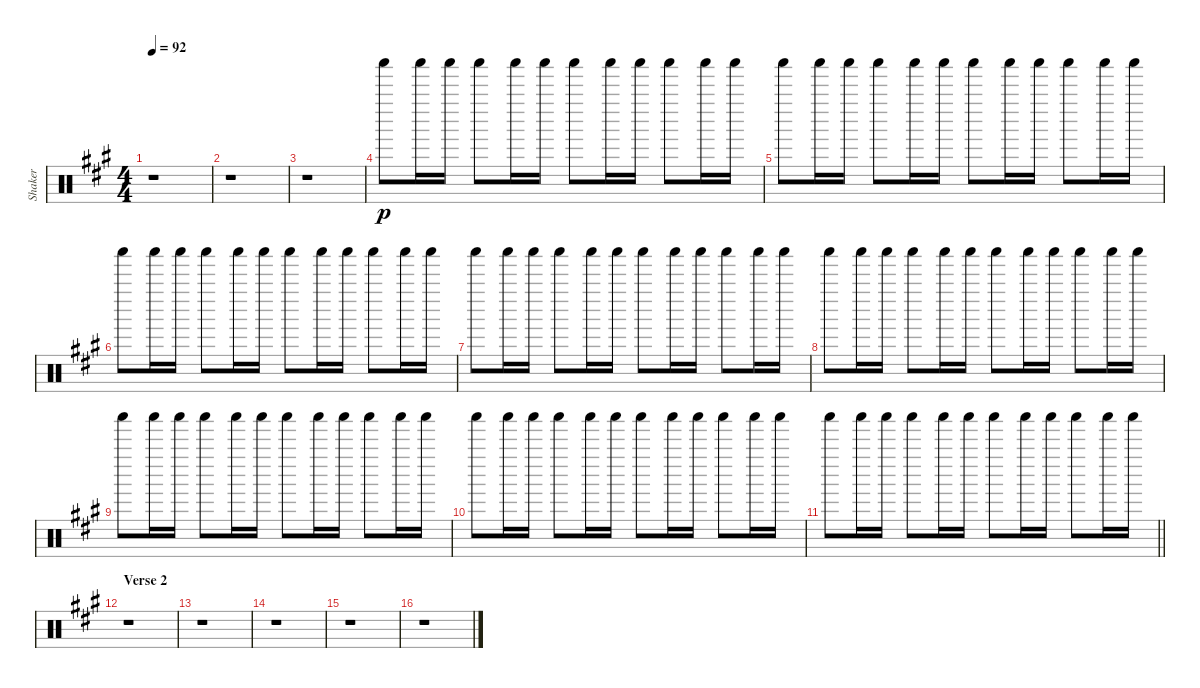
\track ("Shaker" "Shaker") {instrument percussion}
\staff {score}
\articulation defaults
\ts (4 4)
\tempo 92
\clef neutral
\ks f#minor
r.1{dy p} |
r.1 |
r.1 |
"Shaker (hit)".8 "Shaker (hit)".16 "Shaker (hit)".16 "Shaker (hit)".8 "Shaker (hit)".16 "Shaker (hit)".16 "Shaker (hit)".8 "Shaker (hit)".16 "Shaker (hit)".16 "Shaker (hit)".8 "Shaker (hit)".16 "Shaker (hit)".16 |
"Shaker (hit)".8 "Shaker (hit)".16 "Shaker (hit)".16 "Shaker (hit)".8 "Shaker (hit)".16 "Shaker (hit)".16 "Shaker (hit)".8 "Shaker (hit)".16 "Shaker (hit)".16 "Shaker (hit)".8 "Shaker (hit)".16 "Shaker (hit)".16 |
"Shaker (hit)".8 "Shaker (hit)".16 "Shaker (hit)".16 "Shaker (hit)".8 "Shaker (hit)".16 "Shaker (hit)".16 "Shaker (hit)".8 "Shaker (hit)".16 "Shaker (hit)".16 "Shaker (hit)".8 "Shaker (hit)".16 "Shaker (hit)".16 |
"Shaker (hit)".8 "Shaker (hit)".16 "Shaker (hit)".16 "Shaker (hit)".8 "Shaker (hit)".16 "Shaker (hit)".16 "Shaker (hit)".8 "Shaker (hit)".16 "Shaker (hit)".16 "Shaker (hit)".8 "Shaker (hit)".16 "Shaker (hit)".16 |
"Shaker (hit)".8 "Shaker (hit)".16 "Shaker (hit)".16 "Shaker (hit)".8 "Shaker (hit)".16 "Shaker (hit)".16 "Shaker (hit)".8 "Shaker (hit)".16 "Shaker (hit)".16 "Shaker (hit)".8 "Shaker (hit)".16 "Shaker (hit)".16 |
"Shaker (hit)".8 "Shaker (hit)".16 "Shaker (hit)".16 "Shaker (hit)".8 "Shaker (hit)".16 "Shaker (hit)".16 "Shaker (hit)".8 "Shaker (hit)".16 "Shaker (hit)".16 "Shaker (hit)".8 "Shaker (hit)".16 "Shaker (hit)".16 |
"Shaker (hit)".8 "Shaker (hit)".16 "Shaker (hit)".16 "Shaker (hit)".8 "Shaker (hit)".16 "Shaker (hit)".16 "Shaker (hit)".8 "Shaker (hit)".16 "Shaker (hit)".16 "Shaker (hit)".8 "Shaker (hit)".16 "Shaker (hit)".16 |
\barLineRight lightlight "Shaker (hit)".8 "Shaker (hit)".16 "Shaker (hit)".16 "Shaker (hit)".8 "Shaker (hit)".16 "Shaker (hit)".16 "Shaker (hit)".8 "Shaker (hit)".16 "Shaker (hit)".16 "Shaker (hit)".8 "Shaker (hit)".16 "Shaker (hit)".16
|
\section ("" "Verse 2")
r.1 |
r.1 |
r.1 |
r.1 |
r.1
